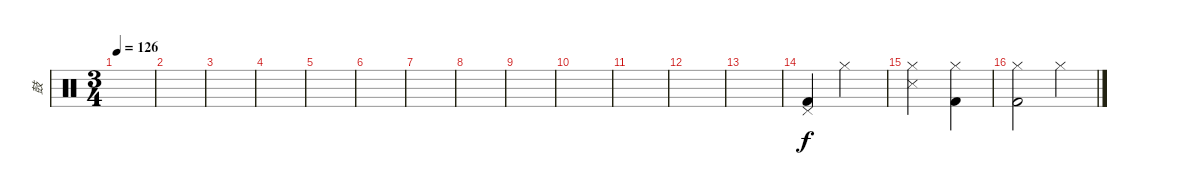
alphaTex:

\track ("鼓" "鼓") {instrument percussion}
\staff {score}
\articulation defaults
\ts (3 4)
\tempo 126
\clef neutral
\ks c
|
|
|
|
|
|
|
|
|
|
|
|
|
("Kick (hit) 2" "Pedal Hi-Hat (hit)").4 "Hi-Hat (closed)".2 |
("Snare (side stick) 3" "Hi-Hat (closed)").2 ("Kick (hit) 2" "Hi-Hat (closed)").4 |
("Kick (hit) 2" "Hi-Hat (closed)").2 "Hi-Hat (closed)".4
